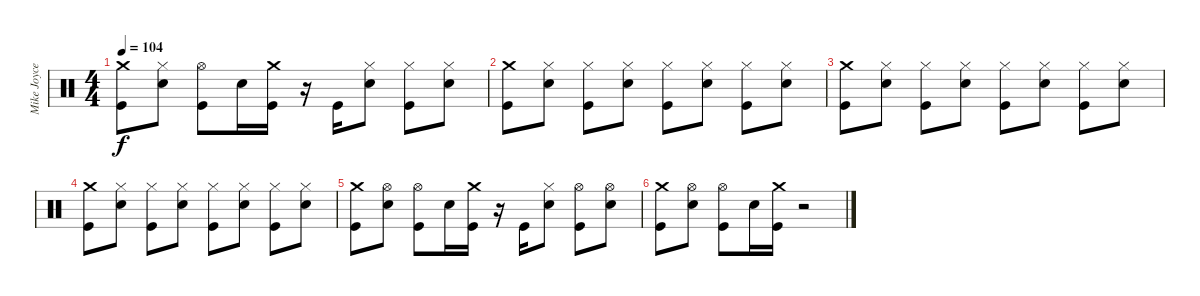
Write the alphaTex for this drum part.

\track ("Mike Joyce|Drums" "Mike Joyce") {instrument percussion}
\staff {score}
\articulation defaults
\ts (4 4)
\tempo 104
\clef neutral
\ks c
("Crash medium (hit)" "Kick (hit)").8{dy f} ("Hi-Hat (closed)" "Snare (hit) 2").8 ("Hi-Hat (open)" "Kick (hit)").8 "Snare (hit) 2".16 ("Crash medium (hit)" "Kick (hit)").16 r.16 "Kick (hit)".16 ("Hi-Hat (closed)" "Snare (hit) 2").8 ("Hi-Hat (closed)" "Kick (hit)").8 ("Hi-Hat (closed)" "Snare (hit) 2").8 |
("Crash medium (hit)" "Kick (hit)").8 ("Hi-Hat (closed)" "Snare (hit) 2").8 ("Hi-Hat (closed)" "Kick (hit)").8 ("Hi-Hat (closed)" "Snare (hit) 2").8 ("Hi-Hat (closed)" "Kick (hit)").8 ("Hi-Hat (closed)" "Snare (hit) 2").8 ("Hi-Hat (closed)" "Kick (hit)").8 ("Hi-Hat (closed)" "Snare (hit) 2").8 |
("Crash medium (hit)" "Kick (hit)").8 ("Hi-Hat (closed)" "Snare (hit) 2").8 ("Hi-Hat (closed)" "Kick (hit)").8 ("Hi-Hat (closed)" "Snare (hit) 2").8 ("Hi-Hat (closed)" "Kick (hit)").8 ("Hi-Hat (closed)" "Snare (hit) 2").8 ("Hi-Hat (closed)" "Kick (hit)").8 ("Hi-Hat (closed)" "Snare (hit) 2").8 |
("Crash medium (hit)" "Kick (hit)").8 ("Hi-Hat (closed)" "Snare (hit) 2").8 ("Hi-Hat (closed)" "Kick (hit)").8 ("Hi-Hat (closed)" "Snare (hit) 2").8 ("Hi-Hat (closed)" "Kick (hit)").8 ("Hi-Hat (closed)" "Snare (hit) 2").8 ("Hi-Hat (closed)" "Kick (hit)").8 ("Hi-Hat (closed)" "Snare (hit) 2").8 |
("Crash medium (hit)" "Kick (hit)").8 ("Hi-Hat (open)" "Snare (hit) 2").8 ("Hi-Hat (open)" "Kick (hit)").8 "Snare (hit) 2".16 ("Crash medium (hit)" "Kick (hit)").16 r.16 "Kick (hit)".16 ("Hi-Hat (closed)" "Snare (hit) 2").8 ("Hi-Hat (open)" "Kick (hit)").8 ("Hi-Hat (open)" "Snare (hit) 2").8 |
("Crash medium (hit)" "Kick (hit)").8 ("Hi-Hat (open)" "Snare (hit) 2").8 ("Hi-Hat (open)" "Kick (hit)").8 "Snare (hit) 2".16 ("Crash medium (hit)" "Kick (hit)").16 r.2
